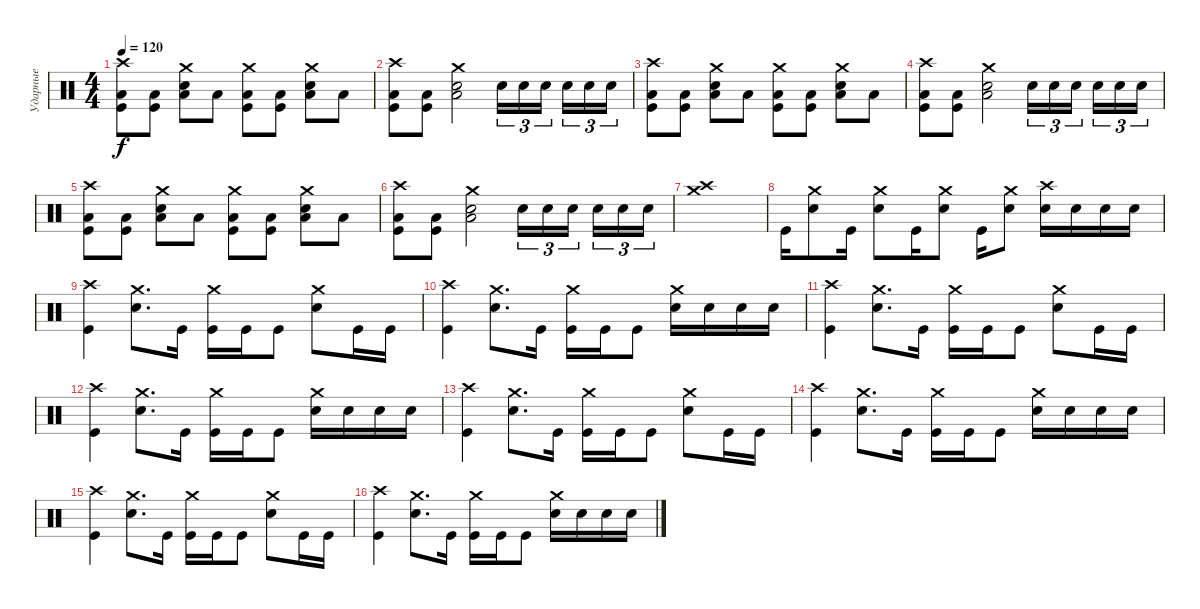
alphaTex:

\track ("Ударные" "Ударные") {instrument percussion}
\staff {score}
\articulation defaults
\ts (4 4)
\tempo 120
\clef neutral
\ks c
("Low Tom (hit)" "Kick (hit)" "Crash high (hit)").8{dy f} ("Low Tom (hit)" "Kick (hit)").8 ("Low Tom (hit)" "Snare (hit) 2" "Crash medium (hit)").8 "Low Tom (hit)".8 ("Low Tom (hit)" "Kick (hit)" "Crash medium (hit)").8 ("Low Tom (hit)" "Kick (hit)").8 ("Low Tom (hit)" "Snare (hit) 2" "Crash medium (hit)").8 "Low Tom (hit)".8 |
("Low Tom (hit)" "Kick (hit)" "Crash high (hit)").8 ("Low Tom (hit)" "Kick (hit)").8 ("Low Tom (hit)" "Snare (hit) 2" "Crash medium (hit)").2 "Snare (hit) 2".16{tu (3 2)} "Snare (hit) 2".16{tu (3 2)} "Snare (hit) 2".16{tu (3 2) beam splitsecondary} "Snare (hit) 2".16{tu (3 2)} "Snare (hit) 2".16{tu (3 2)} "Snare (hit) 2".16{tu (3 2)} |
("Low Tom (hit)" "Kick (hit)" "Crash high (hit)").8 ("Low Tom (hit)" "Kick (hit)").8 ("Low Tom (hit)" "Snare (hit) 2" "Crash medium (hit)").8 "Low Tom (hit)".8 ("Low Tom (hit)" "Kick (hit)" "Crash medium (hit)").8 ("Low Tom (hit)" "Kick (hit)").8 ("Low Tom (hit)" "Snare (hit) 2" "Crash medium (hit)").8 "Low Tom (hit)".8 |
("Low Tom (hit)" "Kick (hit)" "Crash high (hit)").8 ("Low Tom (hit)" "Kick (hit)").8 ("Low Tom (hit)" "Snare (hit) 2" "Crash medium (hit)").2 "Snare (hit) 2".16{tu (3 2)} "Snare (hit) 2".16{tu (3 2)} "Snare (hit) 2".16{tu (3 2) beam splitsecondary} "Snare (hit) 2".16{tu (3 2)} "Snare (hit) 2".16{tu (3 2)} "Snare (hit) 2".16{tu (3 2)} |
("Low Tom (hit)" "Kick (hit)" "Crash high (hit)").8 ("Low Tom (hit)" "Kick (hit)").8 ("Low Tom (hit)" "Snare (hit) 2" "Crash medium (hit)").8 "Low Tom (hit)".8 ("Low Tom (hit)" "Kick (hit)" "Crash medium (hit)").8 ("Low Tom (hit)" "Kick (hit)").8 ("Low Tom (hit)" "Snare (hit) 2" "Crash medium (hit)").8 "Low Tom (hit)".8 |
("Low Tom (hit)" "Kick (hit)" "Crash high (hit)").8 ("Low Tom (hit)" "Kick (hit)").8 ("Low Tom (hit)" "Snare (hit) 2" "Crash medium (hit)").2 "Snare (hit) 2".16{tu (3 2)} "Snare (hit) 2".16{tu (3 2)} "Snare (hit) 2".16{tu (3 2) beam splitsecondary} "Snare (hit) 2".16{tu (3 2)} "Snare (hit) 2".16{tu (3 2)} "Snare (hit) 2".16{tu (3 2)} |
("Crash medium (hit)" "Crash high (hit)").1 |
"Kick (hit)".16 ("Snare (hit) 2" "Crash medium (hit)").8 "Kick (hit)".16 ("Snare (hit) 2" "Crash medium (hit)").8 "Kick (hit)".16 ("Snare (hit) 2" "Crash medium (hit)").8 "Kick (hit)".16 ("Snare (hit) 2" "Crash medium (hit)").8 ("Snare (hit) 2" "Crash high (hit)").16 "Snare (hit) 2".16 "Snare (hit) 2".16 "Snare (hit) 2".16 |
("Kick (hit)" "Crash high (hit)").4 ("Snare (hit) 2" "Crash medium (hit)").8{d} "Kick (hit)".16 ("Kick (hit)" "Crash medium (hit)").16 "Kick (hit)".16 "Kick (hit)".8 ("Snare (hit) 2" "Crash medium (hit)").8 "Kick (hit)".16 "Kick (hit)".16 |
("Kick (hit)" "Crash high (hit)").4 ("Snare (hit) 2" "Crash medium (hit)").8{d} "Kick (hit)".16 ("Kick (hit)" "Crash medium (hit)").16 "Kick (hit)".16 "Kick (hit)".8 ("Snare (hit) 2" "Crash medium (hit)").16 "Snare (hit) 2".16 "Snare (hit) 2".16 "Snare (hit) 2".16 |
("Kick (hit)" "Crash high (hit)").4 ("Snare (hit) 2" "Crash medium (hit)").8{d} "Kick (hit)".16 ("Kick (hit)" "Crash medium (hit)").16 "Kick (hit)".16 "Kick (hit)".8 ("Snare (hit) 2" "Crash medium (hit)").8 "Kick (hit)".16 "Kick (hit)".16 |
("Kick (hit)" "Crash high (hit)").4 ("Snare (hit) 2" "Crash medium (hit)").8{d} "Kick (hit)".16 ("Kick (hit)" "Crash medium (hit)").16 "Kick (hit)".16 "Kick (hit)".8 ("Snare (hit) 2" "Crash medium (hit)").16 "Snare (hit) 2".16 "Snare (hit) 2".16 "Snare (hit) 2".16 |
("Kick (hit)" "Crash high (hit)").4 ("Snare (hit) 2" "Crash medium (hit)").8{d} "Kick (hit)".16 ("Kick (hit)" "Crash medium (hit)").16 "Kick (hit)".16 "Kick (hit)".8 ("Snare (hit) 2" "Crash medium (hit)").8 "Kick (hit)".16 "Kick (hit)".16 |
("Kick (hit)" "Crash high (hit)").4 ("Snare (hit) 2" "Crash medium (hit)").8{d} "Kick (hit)".16 ("Kick (hit)" "Crash medium (hit)").16 "Kick (hit)".16 "Kick (hit)".8 ("Snare (hit) 2" "Crash medium (hit)").16 "Snare (hit) 2".16 "Snare (hit) 2".16 "Snare (hit) 2".16 |
("Kick (hit)" "Crash high (hit)").4 ("Snare (hit) 2" "Crash medium (hit)").8{d} "Kick (hit)".16 ("Kick (hit)" "Crash medium (hit)").16 "Kick (hit)".16 "Kick (hit)".8 ("Snare (hit) 2" "Crash medium (hit)").8 "Kick (hit)".16 "Kick (hit)".16 |
("Kick (hit)" "Crash high (hit)").4 ("Snare (hit) 2" "Crash medium (hit)").8{d} "Kick (hit)".16 ("Kick (hit)" "Crash medium (hit)").16 "Kick (hit)".16 "Kick (hit)".8 ("Snare (hit) 2" "Crash medium (hit)").16 "Snare (hit) 2".16 "Snare (hit) 2".16 "Snare (hit) 2".16
